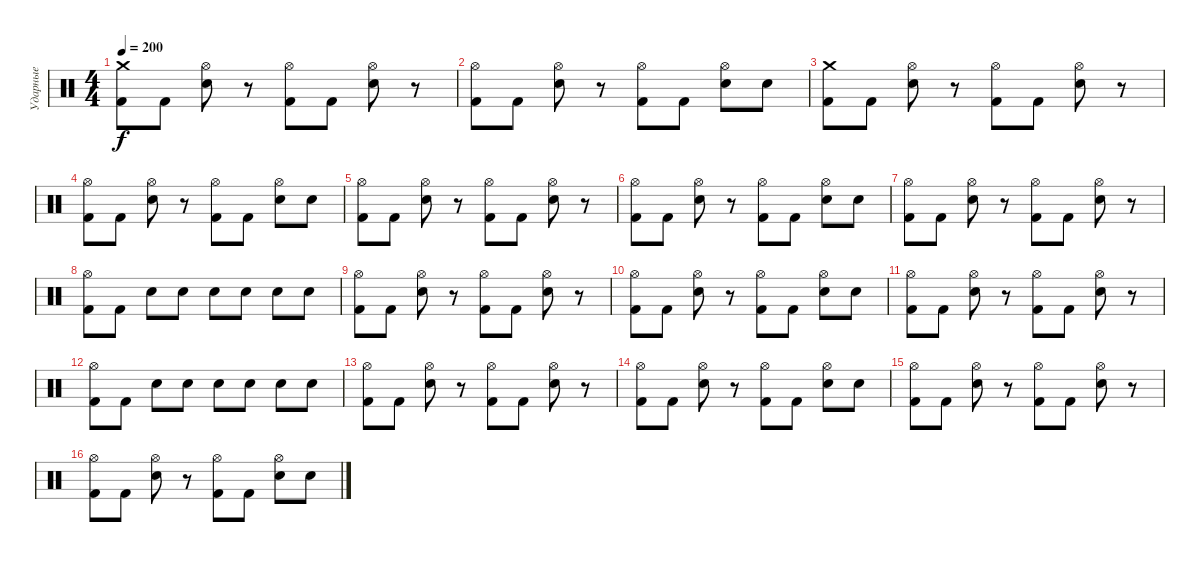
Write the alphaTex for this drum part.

\track ("Ударные" "Ударные") {instrument percussion}
\staff {score}
\articulation defaults
\ts (4 4)
\tempo 200
\clef neutral
\ks c
("Crash medium (hit)" "Kick (hit) 2").8{dy f} "Kick (hit) 2".8 ("Hi-Hat (open)" "Snare (hit) 2").8 r.8 ("Hi-Hat (open)" "Kick (hit) 2").8 "Kick (hit) 2".8 ("Hi-Hat (open)" "Snare (hit) 2").8 r.8 |
("Hi-Hat (open)" "Kick (hit) 2").8 "Kick (hit) 2".8 ("Hi-Hat (open)" "Snare (hit) 2").8 r.8 ("Hi-Hat (open)" "Kick (hit) 2").8 "Kick (hit) 2".8 ("Hi-Hat (open)" "Snare (hit) 2").8 "Snare (hit) 2".8 |
("Crash medium (hit)" "Kick (hit) 2").8 "Kick (hit) 2".8 ("Hi-Hat (open)" "Snare (hit) 2").8 r.8 ("Hi-Hat (open)" "Kick (hit) 2").8 "Kick (hit) 2".8 ("Hi-Hat (open)" "Snare (hit) 2").8 r.8 |
("Hi-Hat (open)" "Kick (hit) 2").8 "Kick (hit) 2".8 ("Hi-Hat (open)" "Snare (hit) 2").8 r.8 ("Hi-Hat (open)" "Kick (hit) 2").8 "Kick (hit) 2".8 ("Hi-Hat (open)" "Snare (hit) 2").8 "Snare (hit) 2".8 |
("Hi-Hat (open)" "Kick (hit) 2").8 "Kick (hit) 2".8 ("Hi-Hat (open)" "Snare (hit) 2").8 r.8 ("Hi-Hat (open)" "Kick (hit) 2").8 "Kick (hit) 2".8 ("Hi-Hat (open)" "Snare (hit) 2").8 r.8 |
("Hi-Hat (open)" "Kick (hit) 2").8 "Kick (hit) 2".8 ("Hi-Hat (open)" "Snare (hit) 2").8 r.8 ("Hi-Hat (open)" "Kick (hit) 2").8 "Kick (hit) 2".8 ("Hi-Hat (open)" "Snare (hit) 2").8 "Snare (hit) 2".8 |
("Hi-Hat (open)" "Kick (hit) 2").8 "Kick (hit) 2".8 ("Hi-Hat (open)" "Snare (hit) 2").8 r.8 ("Hi-Hat (open)" "Kick (hit) 2").8 "Kick (hit) 2".8 ("Hi-Hat (open)" "Snare (hit) 2").8 r.8 |
("Hi-Hat (open)" "Kick (hit) 2").8 "Kick (hit) 2".8 "Snare (hit) 2".8 "Snare (hit) 2".8 "Snare (hit) 2".8 "Snare (hit) 2".8 "Snare (hit) 2".8 "Snare (hit) 2".8 |
("Hi-Hat (open)" "Kick (hit) 2").8 "Kick (hit) 2".8 ("Hi-Hat (open)" "Snare (hit) 2").8 r.8 ("Hi-Hat (open)" "Kick (hit) 2").8 "Kick (hit) 2".8 ("Hi-Hat (open)" "Snare (hit) 2").8 r.8 |
("Hi-Hat (open)" "Kick (hit) 2").8 "Kick (hit) 2".8 ("Hi-Hat (open)" "Snare (hit) 2").8 r.8 ("Hi-Hat (open)" "Kick (hit) 2").8 "Kick (hit) 2".8 ("Hi-Hat (open)" "Snare (hit) 2").8 "Snare (hit) 2".8 |
("Hi-Hat (open)" "Kick (hit) 2").8 "Kick (hit) 2".8 ("Hi-Hat (open)" "Snare (hit) 2").8 r.8 ("Hi-Hat (open)" "Kick (hit) 2").8 "Kick (hit) 2".8 ("Hi-Hat (open)" "Snare (hit) 2").8 r.8 |
("Hi-Hat (open)" "Kick (hit) 2").8 "Kick (hit) 2".8 "Snare (hit) 2".8 "Snare (hit) 2".8 "Snare (hit) 2".8 "Snare (hit) 2".8 "Snare (hit) 2".8 "Snare (hit) 2".8 |
("Hi-Hat (open)" "Kick (hit) 2").8 "Kick (hit) 2".8 ("Hi-Hat (open)" "Snare (hit) 2").8 r.8 ("Hi-Hat (open)" "Kick (hit) 2").8 "Kick (hit) 2".8 ("Hi-Hat (open)" "Snare (hit) 2").8 r.8 |
("Hi-Hat (open)" "Kick (hit) 2").8 "Kick (hit) 2".8 ("Hi-Hat (open)" "Snare (hit) 2").8 r.8 ("Hi-Hat (open)" "Kick (hit) 2").8 "Kick (hit) 2".8 ("Hi-Hat (open)" "Snare (hit) 2").8 "Snare (hit) 2".8 |
("Hi-Hat (open)" "Kick (hit) 2").8 "Kick (hit) 2".8 ("Hi-Hat (open)" "Snare (hit) 2").8 r.8 ("Hi-Hat (open)" "Kick (hit) 2").8 "Kick (hit) 2".8 ("Hi-Hat (open)" "Snare (hit) 2").8 r.8 |
("Hi-Hat (open)" "Kick (hit) 2").8 "Kick (hit) 2".8 ("Hi-Hat (open)" "Snare (hit) 2").8 r.8 ("Hi-Hat (open)" "Kick (hit) 2").8 "Kick (hit) 2".8 ("Hi-Hat (open)" "Snare (hit) 2").8 "Snare (hit) 2".8
